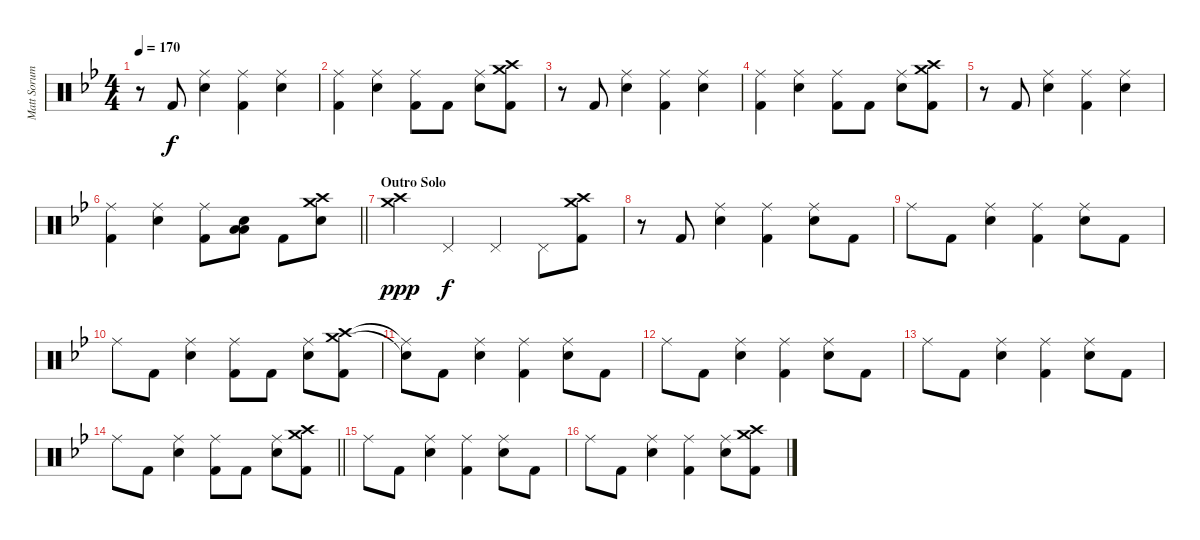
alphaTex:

\track ("Matt Sorum - Drums" "Matt Sorum") {instrument percussion}
\staff {score}
\articulation defaults
\ts (4 4)
\tempo 170
\clef neutral
\ks bb
r.8{dy f} "Kick (hit) 2".8 ("Ride (middle)" "Snare (hit) 2").4 ("Ride (middle)" "Kick (hit) 2").4 ("Ride (middle)" "Snare (hit) 2").4 |
("Ride (middle)" "Kick (hit) 2").4 ("Ride (middle)" "Snare (hit) 2").4 ("Ride (middle)" "Kick (hit) 2").8 "Kick (hit) 2".8 ("Ride (middle)" "Snare (hit) 2").8 ("Crash medium (hit)" "Crash high (hit)" "Kick (hit) 2").8 |
r.8 "Kick (hit) 2".8 ("Ride (middle)" "Snare (hit) 2").4 ("Ride (middle)" "Kick (hit) 2").4 ("Ride (middle)" "Snare (hit) 2").4 |
("Ride (middle)" "Kick (hit) 2").4 ("Ride (middle)" "Snare (hit) 2").4 ("Ride (middle)" "Kick (hit) 2").8 "Kick (hit) 2".8 ("Ride (middle)" "Snare (hit) 2").8 ("Crash medium (hit)" "Crash high (hit)" "Kick (hit) 2").8 |
r.8 "Kick (hit) 2".8 ("Ride (middle)" "Snare (hit) 2").4 ("Ride (middle)" "Kick (hit) 2").4 ("Ride (middle)" "Snare (hit) 2").4 |
\barLineRight lightlight
("Ride (middle)" "Kick (hit) 2").4 ("Ride (middle)" "Snare (hit) 2").4 ("Ride (middle)" "Kick (hit) 2").8 ("Low Tom (hit)" "Low Tom (hit)" "Snare (hit) 2").8 "Kick (hit) 2".8 ("Crash medium (hit)" "Crash high (hit)" "Snare (hit) 2").8 |
\section ("" "Outro Solo")
("Crash medium (hit)" "Crash high (hit)").4{dy ppp} "Pedal Hi-Hat (hit)".4{dy f} "Pedal Hi-Hat (hit)".4 "Pedal Hi-Hat (hit)".8 ("Crash medium (hit)" "Crash high (hit)" "Kick (hit) 2").8 |
r.8 "Kick (hit) 2".8 ("Ride (middle)" "Snare (hit) 2").4 ("Ride (middle)" "Kick (hit) 2").4 ("Ride (middle)" "Snare (hit) 2").8 "Kick (hit) 2".8 |
"Ride (middle)".8 "Kick (hit) 2".8 ("Ride (middle)" "Snare (hit) 2").4 ("Ride (middle)" "Kick (hit) 2").4 ("Ride (middle)" "Snare (hit) 2").8 "Kick (hit) 2".8 |
"Ride (middle)".8 "Kick (hit) 2".8 ("Ride (middle)" "Snare (hit) 2").4 ("Ride (middle)" "Kick (hit) 2").8 "Kick (hit) 2".8 ("Ride (middle)" "Snare (hit) 2").8 ("Crash medium (hit)" "Crash high (hit)" "Kick (hit) 2").8 |
("Snare (hit)"{t} "Ride (middle)"{t}).8 "Kick (hit) 2".8 ("Ride (middle)" "Snare (hit) 2").4 ("Ride (middle)" "Kick (hit) 2").4 ("Ride (middle)" "Snare (hit) 2").8 "Kick (hit) 2".8 |
"Ride (middle)".8 "Kick (hit) 2".8 ("Ride (middle)" "Snare (hit) 2").4 ("Ride (middle)" "Kick (hit) 2").4 ("Ride (middle)" "Snare (hit) 2").8 "Kick (hit) 2".8 |
"Ride (middle)".8 "Kick (hit) 2".8 ("Ride (middle)" "Snare (hit) 2").4 ("Ride (middle)" "Kick (hit) 2").4 ("Ride (middle)" "Snare (hit) 2").8 "Kick (hit) 2".8 |
\barLineRight lightlight "Ride (middle)".8 "Kick (hit) 2".8
("Ride (middle)" "Snare (hit) 2").4 ("Ride (middle)" "Kick (hit) 2").8 "Kick (hit) 2".8 ("Ride (middle)" "Snare (hit) 2").8 ("Crash medium (hit)" "Crash high (hit)" "Kick (hit) 2").8 |
"Ride (middle)".8 "Kick (hit) 2".8 ("Ride (middle)" "Snare (hit) 2").4 ("Ride (middle)" "Kick (hit) 2").4 ("Ride (middle)" "Snare (hit) 2").8 "Kick (hit) 2".8 |
"Ride (middle)".8 "Kick (hit) 2".8 ("Ride (middle)" "Snare (hit) 2").4 ("Ride (middle)" "Kick (hit) 2").4 ("Ride (middle)" "Snare (hit) 2").8 ("Crash medium (hit)" "Crash high (hit)" "Kick (hit) 2").8
